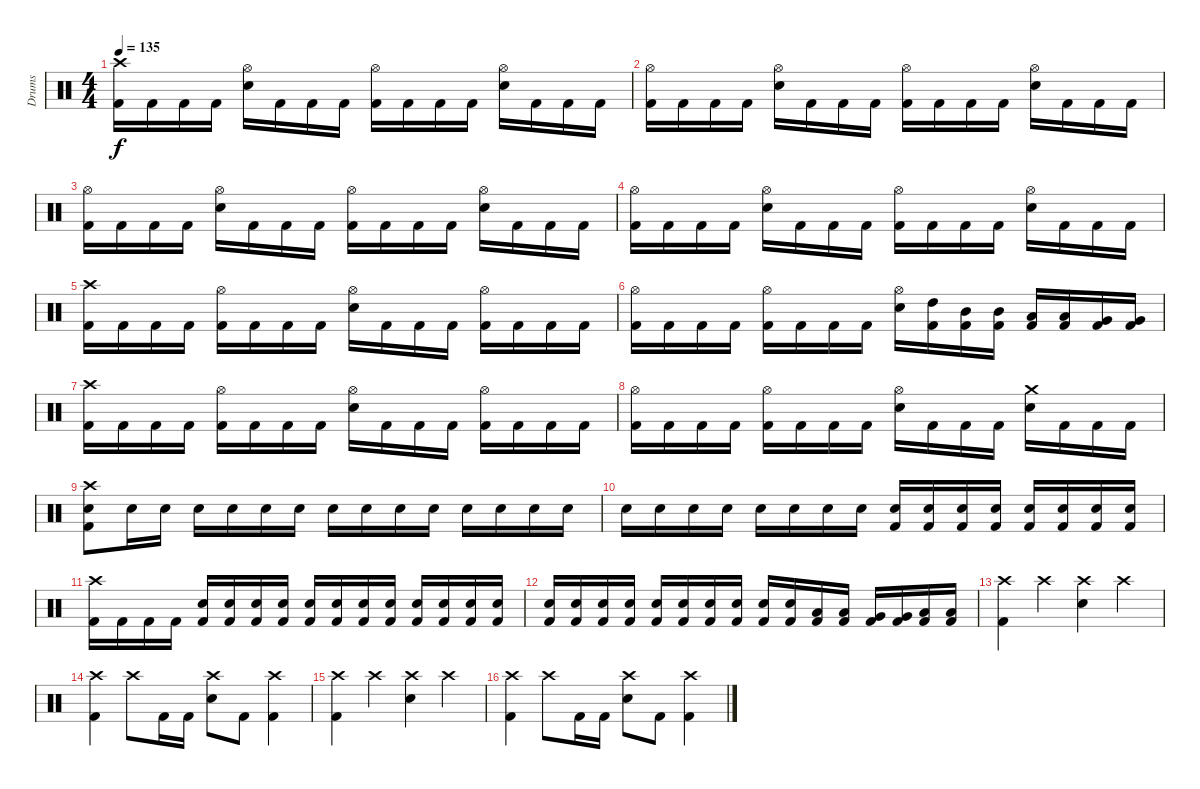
\track ("Drums" "Drums") {instrument percussion}
\staff {score}
\articulation defaults
\ts (4 4)
\tempo 135
\clef neutral
\ks c
("Crash high (hit)" "Kick (hit) 2").16{dy f} "Kick (hit) 2".16 "Kick (hit) 2".16 "Kick (hit) 2".16 ("Hi-Hat (open)" "Snare (hit) 2").16 "Kick (hit) 2".16 "Kick (hit) 2".16 "Kick (hit) 2".16 ("Hi-Hat (open)" "Kick (hit) 2").16 "Kick (hit) 2".16 "Kick (hit) 2".16 "Kick (hit) 2".16 ("Hi-Hat (open)" "Snare (hit) 2").16 "Kick (hit) 2".16 "Kick (hit) 2".16 "Kick (hit) 2".16 |
("Hi-Hat (open)" "Kick (hit) 2").16 "Kick (hit) 2".16 "Kick (hit) 2".16 "Kick (hit) 2".16 ("Hi-Hat (open)" "Snare (hit) 2").16 "Kick (hit) 2".16 "Kick (hit) 2".16 "Kick (hit) 2".16 ("Hi-Hat (open)" "Kick (hit) 2").16 "Kick (hit) 2".16 "Kick (hit) 2".16 "Kick (hit) 2".16 ("Hi-Hat (open)" "Snare (hit) 2").16 "Kick (hit) 2".16 "Kick (hit) 2".16 "Kick (hit) 2".16 |
("Hi-Hat (open)" "Kick (hit) 2").16 "Kick (hit) 2".16 "Kick (hit) 2".16 "Kick (hit) 2".16 ("Hi-Hat (open)" "Snare (hit) 2").16 "Kick (hit) 2".16 "Kick (hit) 2".16 "Kick (hit) 2".16 ("Hi-Hat (open)" "Kick (hit) 2").16 "Kick (hit) 2".16 "Kick (hit) 2".16 "Kick (hit) 2".16 ("Hi-Hat (open)" "Snare (hit) 2").16 "Kick (hit) 2".16 "Kick (hit) 2".16 "Kick (hit) 2".16 |
("Hi-Hat (open)" "Kick (hit) 2").16 "Kick (hit) 2".16 "Kick (hit) 2".16 "Kick (hit) 2".16 ("Hi-Hat (open)" "Snare (hit) 2").16 "Kick (hit) 2".16 "Kick (hit) 2".16 "Kick (hit) 2".16 ("Hi-Hat (open)" "Kick (hit) 2").16 "Kick (hit) 2".16 "Kick (hit) 2".16 "Kick (hit) 2".16 ("Hi-Hat (open)" "Snare (hit) 2").16 "Kick (hit) 2".16 "Kick (hit) 2".16 "Kick (hit) 2".16 |
("Crash high (hit)" "Kick (hit) 2").16 "Kick (hit) 2".16 "Kick (hit) 2".16 "Kick (hit) 2".16 ("Hi-Hat (open)" "Kick (hit) 2").16 "Kick (hit) 2".16 "Kick (hit) 2".16 "Kick (hit) 2".16 ("Hi-Hat (open)" "Snare (hit) 2").16 "Kick (hit) 2".16 "Kick (hit) 2".16 "Kick (hit) 2".16 ("Hi-Hat (open)" "Kick (hit) 2").16 "Kick (hit) 2".16 "Kick (hit) 2".16 "Kick (hit) 2".16 |
("Hi-Hat (open)" "Kick (hit) 2").16 "Kick (hit) 2".16 "Kick (hit) 2".16 "Kick (hit) 2".16 ("Hi-Hat (open)" "Kick (hit) 2").16 "Kick (hit) 2".16 "Kick (hit) 2".16 "Kick (hit) 2".16 ("Hi-Hat (open)" "Snare (hit) 2").16 ("High Tom (hit)" "Kick (hit) 2").16 ("Mid Tom (hit)" "Kick (hit) 2").16 ("Mid Tom (hit)" "Kick (hit) 2").16 ("Low Tom (hit)" "Kick (hit) 2").16 ("Low Tom (hit)" "Kick (hit) 2").16 ("Very Low Tom (hit)" "Kick (hit) 2").16 ("Very Low Tom (hit)" "Kick (hit) 2").16 |
("Crash high (hit)" "Kick (hit) 2").16 "Kick (hit) 2".16 "Kick (hit) 2".16 "Kick (hit) 2".16 ("Hi-Hat (open)" "Kick (hit) 2").16 "Kick (hit) 2".16 "Kick (hit) 2".16 "Kick (hit) 2".16 ("Hi-Hat (open)" "Snare (hit) 2").16 "Kick (hit) 2".16 "Kick (hit) 2".16 "Kick (hit) 2".16 ("Hi-Hat (open)" "Kick (hit) 2").16 "Kick (hit) 2".16 "Kick (hit) 2".16 "Kick (hit) 2".16 |
("Hi-Hat (open)" "Kick (hit) 2").16 "Kick (hit) 2".16 "Kick (hit) 2".16 "Kick (hit) 2".16 ("Hi-Hat (open)" "Kick (hit) 2").16 "Kick (hit) 2".16 "Kick (hit) 2".16 "Kick (hit) 2".16 ("Hi-Hat (open)" "Snare (hit) 2").16 "Kick (hit) 2".16 "Kick (hit) 2".16 "Kick (hit) 2".16 ("Crash medium (hit)" "Snare (hit) 2").16 "Kick (hit) 2".16 "Kick (hit) 2".16 "Kick (hit) 2".16 |
("Crash high (hit)" "Snare (hit) 2" "Kick (hit) 2").8 "Snare (hit) 2".16 "Snare (hit) 2".16 "Snare (hit) 2".16 "Snare (hit) 2".16 "Snare (hit) 2".16 "Snare (hit) 2".16 "Snare (hit) 2".16 "Snare (hit) 2".16 "Snare (hit) 2".16 "Snare (hit) 2".16 "Snare (hit) 2".16 "Snare (hit) 2".16 "Snare (hit) 2".16 "Snare (hit) 2".16 |
"Snare (hit) 2".16 "Snare (hit) 2".16 "Snare (hit) 2".16 "Snare (hit) 2".16 "Snare (hit) 2".16 "Snare (hit) 2".16 "Snare (hit) 2".16 "Snare (hit) 2".16 ("Snare (hit) 2" "Kick (hit) 2").16 ("Snare (hit) 2" "Kick (hit) 2").16 ("Snare (hit) 2" "Kick (hit) 2").16 ("Snare (hit) 2" "Kick (hit) 2").16 ("Snare (hit) 2" "Kick (hit) 2").16 ("Snare (hit) 2" "Kick (hit) 2").16 ("Snare (hit) 2" "Kick (hit) 2").16 ("Snare (hit) 2" "Kick (hit) 2").16 |
("Crash high (hit)" "Kick (hit) 2").16 "Kick (hit) 2".16 "Kick (hit) 2".16 "Kick (hit) 2".16 ("Snare (hit) 2" "Kick (hit) 2").16 ("Snare (hit) 2" "Kick (hit) 2").16 ("Snare (hit) 2" "Kick (hit) 2").16 ("Snare (hit) 2" "Kick (hit) 2").16 ("Snare (hit) 2" "Kick (hit) 2").16 ("Snare (hit) 2" "Kick (hit) 2").16 ("Snare (hit) 2" "Kick (hit) 2").16 ("Snare (hit) 2" "Kick (hit) 2").16 ("Snare (hit) 2" "Kick (hit) 2").16 ("Snare (hit) 2" "Kick (hit) 2").16 ("Snare (hit) 2" "Kick (hit) 2").16 ("Snare (hit) 2" "Kick (hit) 2").16 |
("Snare (hit) 2" "Kick (hit) 2").16 ("Snare (hit) 2" "Kick (hit) 2").16 ("Snare (hit) 2" "Kick (hit) 2").16 ("Snare (hit) 2" "Kick (hit) 2").16 ("Snare (hit) 2" "Kick (hit) 2").16 ("Snare (hit) 2" "Kick (hit) 2").16 ("Snare (hit) 2" "Kick (hit) 2").16 ("Snare (hit) 2" "Kick (hit) 2").16 ("Snare (hit) 2" "Kick (hit) 2").16 ("Snare (hit) 2" "Kick (hit) 2").16 ("Low Tom (hit)" "Kick (hit) 2").16 ("Low Tom (hit)" "Kick (hit) 2").16 ("Very Low Tom (hit)" "Kick (hit) 2").16 ("Very Low Tom (hit)" "Kick (hit) 2").16 ("Low Floor Tom (hit)" "Kick (hit) 2").16 ("Low Floor Tom (hit)" "Kick (hit) 2").16 |
("Crash high (hit)" "Kick (hit) 2").4 "Crash high (hit)".4 ("Crash high (hit)" "Snare (hit) 2").4 "Crash high (hit)".4 |
("Crash high (hit)" "Kick (hit) 2").4 "Crash high (hit)".8 "Kick (hit) 2".16 "Kick (hit) 2".16 ("Crash high (hit)" "Snare (hit) 2").8 "Kick (hit) 2".8 ("Crash high (hit)" "Kick (hit) 2").4 |
("Crash high (hit)" "Kick (hit) 2").4 "Crash high (hit)".4 ("Crash high (hit)" "Snare (hit) 2").4 "Crash high (hit)".4 |
("Crash high (hit)" "Kick (hit) 2").4 "Crash high (hit)".8 "Kick (hit) 2".16 "Kick (hit) 2".16 ("Crash high (hit)" "Snare (hit) 2").8 "Kick (hit) 2".8 ("Crash high (hit)" "Kick (hit) 2").4
